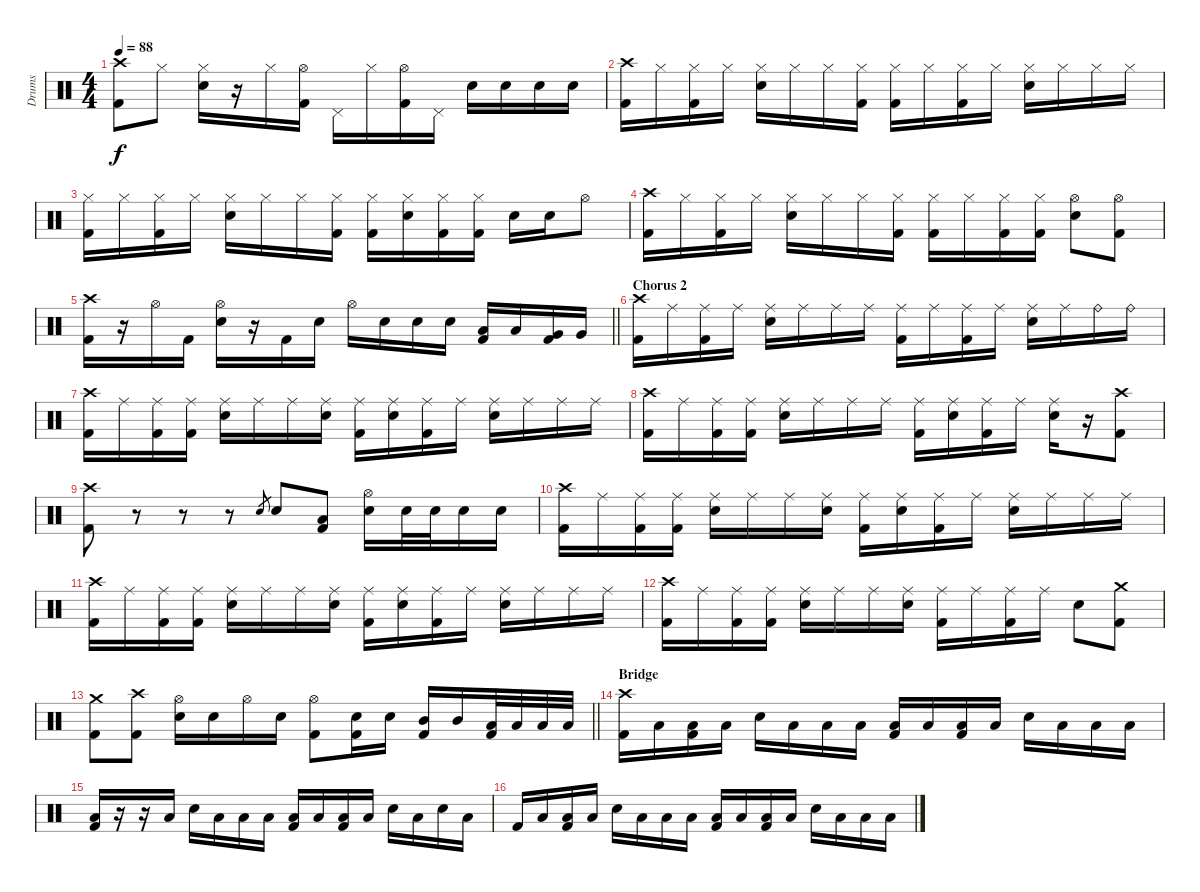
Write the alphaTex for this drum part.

\track ("Drums" "Drums") {instrument percussion}
\staff {score}
\articulation defaults
\ts (4 4)
\tempo 88
\clef neutral
\ks c
("Kick (hit) 2" "Crash high (hit)").8{dy f} "Hi-Hat (closed)".8 ("Snare (hit) 2" "Hi-Hat (closed)").16 r.16 "Hi-Hat (closed)".16 ("Kick (hit) 2" "Hi-Hat (open)").16 "Pedal Hi-Hat (hit)".16 "Hi-Hat (closed)".16 ("Kick (hit) 2" "Hi-Hat (open)").16 "Pedal Hi-Hat (hit)".16 "Snare (hit) 2".16 "Snare (hit) 2".16 "Snare (hit) 2".16 "Snare (hit) 2".16 |
("Kick (hit) 2" "Crash high (hit)").16 "Hi-Hat (closed)".16 ("Kick (hit) 2" "Hi-Hat (closed)").16 "Hi-Hat (closed)".16 ("Snare (hit) 2" "Hi-Hat (closed)").16 "Hi-Hat (closed)".16 "Hi-Hat (closed)".16 ("Kick (hit) 2" "Hi-Hat (closed)").16 ("Kick (hit) 2" "Hi-Hat (closed)").16 "Hi-Hat (closed)".16 ("Kick (hit) 2" "Hi-Hat (closed)").16 "Hi-Hat (closed)".16 ("Snare (hit) 2" "Hi-Hat (closed)").16 "Hi-Hat (closed)".16 "Hi-Hat (closed)".16 "Hi-Hat (closed)".16 |
("Kick (hit) 2" "Hi-Hat (closed)").16 "Hi-Hat (closed)".16 ("Kick (hit) 2" "Hi-Hat (closed)").16 "Hi-Hat (closed)".16 ("Snare (hit) 2" "Hi-Hat (closed)").16 "Hi-Hat (closed)".16 "Hi-Hat (closed)".16 ("Kick (hit) 2" "Hi-Hat (closed)").16 ("Kick (hit) 2" "Hi-Hat (closed)").16 ("Snare (hit) 2" "Hi-Hat (closed)").16 ("Kick (hit) 2" "Hi-Hat (closed)").16 ("Kick (hit) 2" "Hi-Hat (closed)").16 "Snare (hit) 2".16 "Snare (hit) 2".16 "Hi-Hat (open)".8 |
("Kick (hit) 2" "Crash high (hit)").16 "Hi-Hat (closed)".16 ("Kick (hit) 2" "Hi-Hat (closed)").16 "Hi-Hat (closed)".16 ("Snare (hit) 2" "Hi-Hat (closed)").16 "Hi-Hat (closed)".16 "Hi-Hat (closed)".16 ("Kick (hit) 2" "Hi-Hat (closed)").16 ("Kick (hit) 2" "Hi-Hat (closed)").16 "Hi-Hat (closed)".16 ("Kick (hit) 2" "Hi-Hat (closed)").16 ("Kick (hit) 2" "Hi-Hat (closed)").16 ("Snare (hit) 2" "Hi-Hat (open)").8 ("Kick (hit) 2" "Hi-Hat (open)").8 |
\barLineRight lightlight
("Kick (hit) 2" "Crash high (hit)").16 r.16 "Hi-Hat (open)".16 "Kick (hit) 2".16 ("Snare (hit) 2" "Hi-Hat (open)").16 r.16 "Kick (hit) 2".16 "Snare (hit) 2".16 "Hi-Hat (open)".16 "Snare (hit) 2".16 "Snare (hit) 2".16 "Snare (hit) 2".16 ("Low Tom (hit)" "Kick (hit) 2").16 "Low Tom (hit)".16 ("Very Low Tom (hit)" "Kick (hit) 2").16 "Very Low Tom (hit)".16 |
\section ("" "Chorus 2")
("Kick (hit) 2" "Crash high (hit)").16 "Ride (middle)".16 ("Kick (hit) 2" "Ride (middle)").16 "Ride (middle)".16 ("Snare (hit) 2" "Ride (middle)").16 "Ride (middle)".16 "Ride (middle)".16 "Ride (middle)".16 ("Kick (hit) 2" "Ride (middle)").16 "Ride (middle)".16 ("Kick (hit) 2" "Ride (middle)").16 "Ride (middle)".16 ("Snare (hit) 2" "Ride (middle)").16 "Ride (middle)".16 "Ride (bell)".16 "Ride (bell)".16 |
("Kick (hit) 2" "Crash high (hit)").16 "Ride (middle)".16 ("Kick (hit) 2" "Ride (middle)").16 ("Ride (middle)" "Kick (hit) 2").16 ("Snare (hit) 2" "Ride (middle)").16 "Ride (middle)".16 "Ride (middle)".16 ("Ride (middle)" "Snare (hit) 2").16 ("Kick (hit) 2" "Ride (middle)").16 ("Ride (middle)" "Snare (hit) 2").16 ("Kick (hit) 2" "Ride (middle)").16 "Ride (middle)".16 ("Snare (hit) 2" "Ride (middle)").16 "Ride (middle)".16 "Ride (middle)".16 "Ride (middle)".16 |
("Kick (hit) 2" "Crash high (hit)").16 "Ride (middle)".16 ("Kick (hit) 2" "Ride (middle)").16 ("Ride (middle)" "Kick (hit) 2").16 ("Snare (hit) 2" "Ride (middle)").16 "Ride (middle)".16 "Ride (middle)".16 "Ride (middle)".16 ("Kick (hit) 2" "Ride (middle)").16 ("Ride (middle)" "Snare (hit) 2").16 ("Kick (hit) 2" "Ride (middle)").16 "Ride (middle)".16 ("Ride (middle)" "Snare (hit) 2").16 r.16 ("Kick (hit) 2" "Crash high (hit)").8 |
("Crash high (hit)" "Kick (hit) 2").8 r.8 r.8 r.8 "Snare (hit) 2".8{gr} "Snare (hit) 2".8 ("Low Floor Tom (hit)" "Kick (hit) 2").8 ("Hi-Hat (open)" "Snare (hit) 2").16 "Snare (hit) 2".32 "Snare (hit) 2".32 "Snare (hit) 2".16 "Snare (hit) 2".16 |
("Kick (hit) 2" "Crash high (hit)").16 "Ride (middle)".16 ("Kick (hit) 2" "Ride (middle)").16 ("Ride (middle)" "Kick (hit) 2").16 ("Snare (hit) 2" "Ride (middle)").16 "Ride (middle)".16 "Ride (middle)".16 ("Ride (middle)" "Snare (hit) 2").16 ("Kick (hit) 2" "Ride (middle)").16 ("Ride (middle)" "Snare (hit) 2").16 ("Kick (hit) 2" "Ride (middle)").16 "Ride (middle)".16 ("Snare (hit) 2" "Ride (middle)").16 "Ride (middle)".16 "Ride (middle)".16 "Ride (middle)".16 |
("Kick (hit) 2" "Crash high (hit)").16 "Ride (middle)".16 ("Kick (hit) 2" "Ride (middle)").16 ("Ride (middle)" "Kick (hit) 2").16 ("Snare (hit) 2" "Ride (middle)").16 "Ride (middle)".16 "Ride (middle)".16 ("Ride (middle)" "Snare (hit) 2").16 ("Kick (hit) 2" "Ride (middle)").16 ("Ride (middle)" "Snare (hit) 2").16 ("Kick (hit) 2" "Ride (middle)").16 "Ride (middle)".16 ("Snare (hit) 2" "Ride (middle)").16 "Ride (middle)".16 "Ride (middle)".16 "Ride (middle)".16 |
("Kick (hit) 2" "Crash high (hit)").16 "Ride (middle)".16 ("Kick (hit) 2" "Ride (middle)").16 ("Ride (middle)" "Kick (hit) 2").16 ("Snare (hit) 2" "Ride (middle)").16 "Ride (middle)".16 "Ride (middle)".16 ("Ride (middle)" "Snare (hit) 2").16 ("Kick (hit) 2" "Ride (middle)").16 "Ride (middle)".16 ("Kick (hit) 2" "Ride (middle)").16 "Ride (middle)".16 "Snare (hit) 2".8 ("Kick (hit) 2" "Crash medium (hit)").8 |
\barLineRight lightlight
("Kick (hit) 2" "Crash medium (hit)").8 ("Crash high (hit)" "Kick (hit) 2").8 ("Snare (hit) 2" "Hi-Hat (open)").16 "Snare (hit) 2".16 "Hi-Hat (open)".16 "Snare (hit) 2".16 ("Kick (hit) 2" "Hi-Hat (open)").8 ("Snare (hit) 2" "Kick (hit) 2").16 "Snare (hit) 2".16 ("Mid Tom (hit)" "Kick (hit) 2").16 "Mid Tom (hit)".16 ("Low Tom (hit)" "Kick (hit) 2").32 "Low Tom (hit)".32 "Low Tom (hit)".32 "Low Tom (hit)".32 |
\section ("" "Bridge")
("Kick (hit) 2" "Crash high (hit)").16 "Low Tom (hit)".16 ("Kick (hit) 2" "Low Tom (hit)").16 "Low Tom (hit)".16 "Snare (hit) 2".16 "Low Floor Tom (hit)".16 "Low Tom (hit)".16 "Low Tom (hit)".16 ("Kick (hit) 2" "Low Tom (hit)").16 "Low Tom (hit)".16 ("Kick (hit) 2" "Low Tom (hit)").16 "Low Tom (hit)".16 "Snare (hit) 2".16 "Low Tom (hit)".16 "Low Floor Tom (hit)".16 "Low Tom (hit)".16 |
("Kick (hit) 2" "Low Floor Tom (hit)").16 r.16 r.16 "Low Floor Tom (hit)".16 "Snare (hit) 2".16 "Low Floor Tom (hit)".16 "Low Tom (hit)".16 "Low Tom (hit)".16 ("Kick (hit) 2" "Low Tom (hit)").16 "Low Tom (hit)".16 ("Kick (hit) 2" "Low Tom (hit)").16 "Low Floor Tom (hit)".16 "Snare (hit) 2".16 "Low Floor Tom (hit)".16 "Snare (hit) 2".16 "Low Tom (hit)".16 |
"Kick (hit) 2".16 "Low Tom (hit)".16 ("Kick (hit) 2" "Low Tom (hit)").16 "Low Tom (hit)".16 "Snare (hit) 2".16 "Low Floor Tom (hit)".16 "Low Tom (hit)".16 "Low Tom (hit)".16 ("Kick (hit) 2" "Low Tom (hit)").16 "Low Tom (hit)".16 ("Kick (hit) 2" "Low Tom (hit)").16 "Low Tom (hit)".16 "Snare (hit) 2".16 "Low Tom (hit)".16 "Low Floor Tom (hit)".16 "Low Tom (hit)".16
